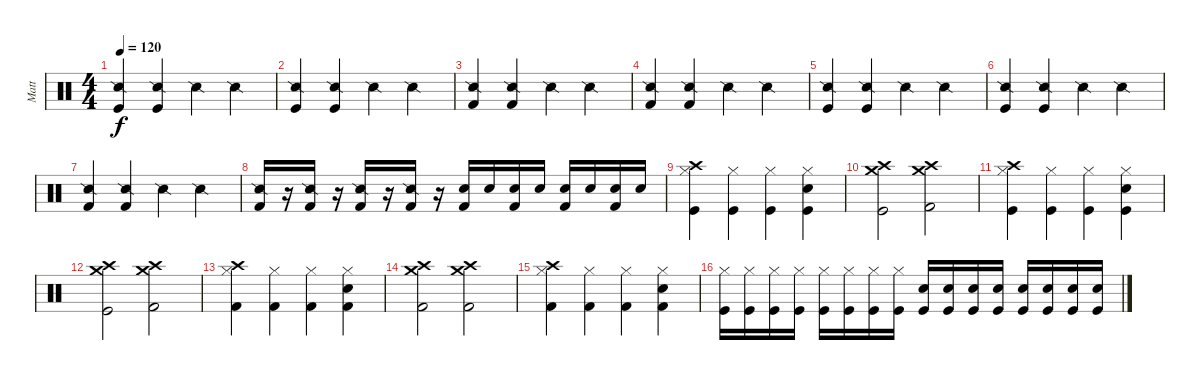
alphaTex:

\track ("Matt" "Matt") {instrument percussion}
\staff {score}
\articulation defaults
\ts (4 4)
\tempo 120
\clef neutral
\ks c
("Kick (hit)" "Snare (side stick) 2").4{dy f} ("Kick (hit)" "Snare (side stick) 2").4 "Snare (side stick) 2".4 "Snare (side stick) 2".4 |
("Kick (hit)" "Snare (side stick) 2").4 ("Kick (hit)" "Snare (side stick) 2").4 "Snare (side stick) 2".4 "Snare (side stick) 2".4 |
("Kick (hit) 2" "Snare (side stick) 2").4 ("Kick (hit) 2" "Snare (side stick) 2").4 "Snare (side stick) 2".4 "Snare (side stick) 2".4 |
("Kick (hit) 2" "Snare (side stick) 2").4 ("Kick (hit) 2" "Snare (side stick) 2").4 "Snare (side stick) 2".4 "Snare (side stick) 2".4 |
("Kick (hit)" "Snare (side stick) 2").4 ("Kick (hit)" "Snare (side stick) 2").4 "Snare (side stick) 2".4 "Snare (side stick) 2".4 |
("Kick (hit)" "Snare (side stick) 2").4 ("Kick (hit)" "Snare (side stick) 2").4 "Snare (side stick) 2".4 "Snare (side stick) 2".4 |
("Kick (hit) 2" "Snare (side stick) 2").4 ("Kick (hit) 2" "Snare (side stick) 2").4 "Snare (side stick) 2".4 "Snare (side stick) 2".4 |
("Snare (side stick) 2" "Kick (hit) 2").16 r.16 ("Snare (side stick) 2" "Kick (hit) 2").16 r.16 ("Snare (side stick) 2" "Kick (hit) 2").16 r.16 ("Snare (side stick) 2" "Kick (hit) 2").16 r.16 ("Electric Snare (hit)" "Kick (hit) 2").16 "Electric Snare (hit)".16 ("Electric Snare (hit)" "Kick (hit) 2").16 "Electric Snare (hit)".16 ("Electric Snare (hit)" "Kick (hit) 2").16 "Electric Snare (hit)".16 ("Electric Snare (hit)" "Kick (hit) 2").16 "Electric Snare (hit)".16 |
("Crash high (hit)" "Hi-Hat (closed)" "Kick (hit)").4 ("Hi-Hat (closed)" "Kick (hit)").4 ("Hi-Hat (closed)" "Kick (hit)").4 ("Hi-Hat (closed)" "Electric Snare (hit)" "Kick (hit)").4 |
("Kick (hit)" "Crash high (hit)" "Crash medium (hit)").2 ("Crash high (hit)" "Crash medium (hit)" "Kick (hit) 2").2 |
("Crash high (hit)" "Hi-Hat (closed)" "Kick (hit)").4 ("Hi-Hat (closed)" "Kick (hit)").4 ("Hi-Hat (closed)" "Kick (hit)").4 ("Hi-Hat (closed)" "Kick (hit)" "Electric Snare (hit)").4 |
("Kick (hit)" "Crash high (hit)" "Crash medium (hit)").2 ("Crash medium (hit)" "Crash high (hit)" "Kick (hit) 2").2 |
("Crash high (hit)" "Hi-Hat (closed)" "Kick (hit) 2").4 ("Hi-Hat (closed)" "Kick (hit) 2").4 ("Hi-Hat (closed)" "Kick (hit) 2").4 ("Electric Snare (hit)" "Hi-Hat (closed)" "Kick (hit) 2").4 |
("Kick (hit) 2" "Crash high (hit)" "Crash medium (hit)").2 ("Kick (hit) 2" "Crash high (hit)" "Crash medium (hit)").2 |
("Crash high (hit)" "Hi-Hat (closed)" "Kick (hit) 2").4 ("Hi-Hat (closed)" "Kick (hit) 2").4 ("Hi-Hat (closed)" "Kick (hit) 2").4 ("Electric Snare (hit)" "Hi-Hat (closed)" "Kick (hit) 2").4 |
("Hi-Hat (closed)" "Kick (hit)").16 ("Hi-Hat (closed)" "Kick (hit)").16 ("Hi-Hat (closed)" "Kick (hit)").16 ("Hi-Hat (closed)" "Kick (hit)").16 ("Hi-Hat (closed)" "Kick (hit)").16 ("Hi-Hat (closed)" "Kick (hit)").16 ("Hi-Hat (closed)" "Kick (hit)").16 ("Hi-Hat (closed)" "Kick (hit)").16 ("Electric Snare (hit)" "Kick (hit)").16 ("Electric Snare (hit)" "Kick (hit)").16 ("Electric Snare (hit)" "Kick (hit)").16 ("Electric Snare (hit)" "Kick (hit)").16 ("Electric Snare (hit)" "Kick (hit)").16 ("Electric Snare (hit)" "Kick (hit)").16 ("Electric Snare (hit)" "Kick (hit)").16 ("Electric Snare (hit)" "Kick (hit)").16
